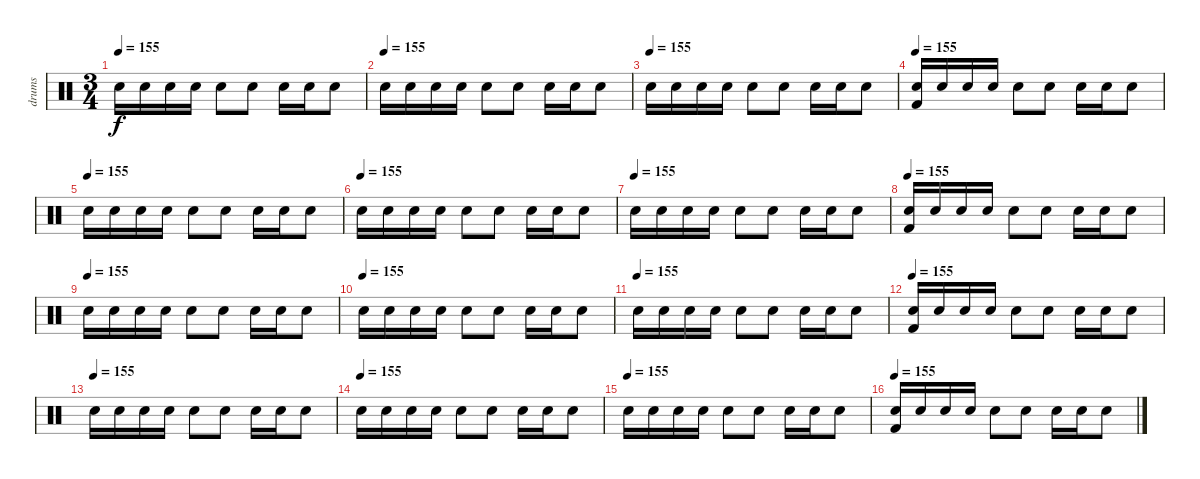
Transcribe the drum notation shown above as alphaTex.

\track ("drums" "drums") {instrument percussion}
\staff {score}
\articulation defaults
\ts (3 4)
\tempo 155
\clef neutral
\ks c "Snare (hit) 2".16{dy f} "Snare (hit) 2".16 "Snare (hit) 2".16 "Snare (hit) 2".16 "Snare (hit) 2".8 "Snare (hit) 2".8 "Snare (hit) 2".16 "Snare (hit) 2".16 "Snare (hit) 2".8
|
\tempo (155)
"Snare (hit) 2".16 "Snare (hit) 2".16 "Snare (hit) 2".16 "Snare (hit) 2".16 "Snare (hit) 2".8 "Snare (hit) 2".8 "Snare (hit) 2".16 "Snare (hit) 2".16 "Snare (hit) 2".8 |
\tempo (155)
"Snare (hit) 2".16 "Snare (hit) 2".16 "Snare (hit) 2".16 "Snare (hit) 2".16 "Snare (hit) 2".8 "Snare (hit) 2".8 "Snare (hit) 2".16 "Snare (hit) 2".16 "Snare (hit) 2".8 |
\tempo 155
("Snare (hit) 2" "Kick (hit) 2").16 "Snare (hit) 2".16 "Snare (hit) 2".16 "Snare (hit) 2".16 "Snare (hit) 2".8 "Snare (hit) 2".8 "Snare (hit) 2".16 "Snare (hit) 2".16 "Snare (hit) 2".8 |
\tempo (155)
"Snare (hit) 2".16 "Snare (hit) 2".16 "Snare (hit) 2".16 "Snare (hit) 2".16 "Snare (hit) 2".8 "Snare (hit) 2".8 "Snare (hit) 2".16 "Snare (hit) 2".16 "Snare (hit) 2".8 |
\tempo (155)
"Snare (hit) 2".16 "Snare (hit) 2".16 "Snare (hit) 2".16 "Snare (hit) 2".16 "Snare (hit) 2".8 "Snare (hit) 2".8 "Snare (hit) 2".16 "Snare (hit) 2".16 "Snare (hit) 2".8 |
\tempo (155)
"Snare (hit) 2".16 "Snare (hit) 2".16 "Snare (hit) 2".16 "Snare (hit) 2".16 "Snare (hit) 2".8 "Snare (hit) 2".8 "Snare (hit) 2".16 "Snare (hit) 2".16 "Snare (hit) 2".8 |
\tempo 155
("Snare (hit) 2" "Kick (hit) 2").16 "Snare (hit) 2".16 "Snare (hit) 2".16 "Snare (hit) 2".16 "Snare (hit) 2".8 "Snare (hit) 2".8 "Snare (hit) 2".16 "Snare (hit) 2".16 "Snare (hit) 2".8 |
\tempo (155)
"Snare (hit) 2".16 "Snare (hit) 2".16 "Snare (hit) 2".16 "Snare (hit) 2".16 "Snare (hit) 2".8 "Snare (hit) 2".8 "Snare (hit) 2".16 "Snare (hit) 2".16 "Snare (hit) 2".8 |
\tempo (155)
"Snare (hit) 2".16 "Snare (hit) 2".16 "Snare (hit) 2".16 "Snare (hit) 2".16 "Snare (hit) 2".8 "Snare (hit) 2".8 "Snare (hit) 2".16 "Snare (hit) 2".16 "Snare (hit) 2".8 |
\tempo (155)
"Snare (hit) 2".16 "Snare (hit) 2".16 "Snare (hit) 2".16 "Snare (hit) 2".16 "Snare (hit) 2".8 "Snare (hit) 2".8 "Snare (hit) 2".16 "Snare (hit) 2".16 "Snare (hit) 2".8 |
\tempo 155
("Snare (hit) 2" "Kick (hit) 2").16 "Snare (hit) 2".16 "Snare (hit) 2".16 "Snare (hit) 2".16 "Snare (hit) 2".8 "Snare (hit) 2".8 "Snare (hit) 2".16 "Snare (hit) 2".16 "Snare (hit) 2".8 |
\tempo (155)
"Snare (hit) 2".16 "Snare (hit) 2".16 "Snare (hit) 2".16 "Snare (hit) 2".16 "Snare (hit) 2".8 "Snare (hit) 2".8 "Snare (hit) 2".16 "Snare (hit) 2".16 "Snare (hit) 2".8 |
\tempo (155)
"Snare (hit) 2".16 "Snare (hit) 2".16 "Snare (hit) 2".16 "Snare (hit) 2".16 "Snare (hit) 2".8 "Snare (hit) 2".8 "Snare (hit) 2".16 "Snare (hit) 2".16 "Snare (hit) 2".8 |
\tempo (155)
"Snare (hit) 2".16 "Snare (hit) 2".16 "Snare (hit) 2".16 "Snare (hit) 2".16 "Snare (hit) 2".8 "Snare (hit) 2".8 "Snare (hit) 2".16 "Snare (hit) 2".16 "Snare (hit) 2".8 |
\tempo 155
("Snare (hit) 2" "Kick (hit) 2").16 "Snare (hit) 2".16 "Snare (hit) 2".16 "Snare (hit) 2".16 "Snare (hit) 2".8 "Snare (hit) 2".8 "Snare (hit) 2".16 "Snare (hit) 2".16 "Snare (hit) 2".8
